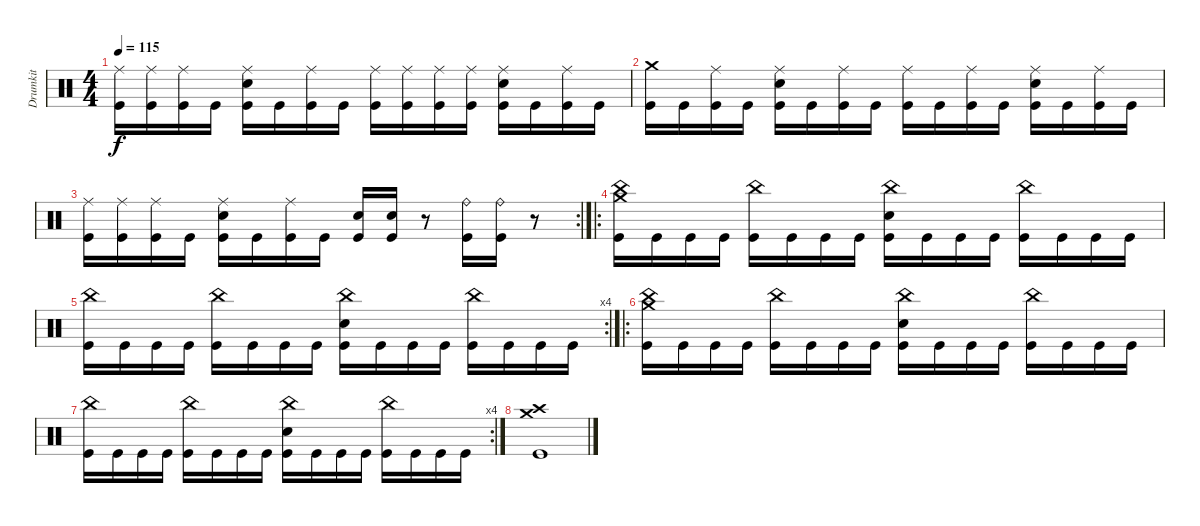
\track ("Drumkit" "Drumkit") {instrument percussion}
\staff {score}
\articulation defaults
\ts (4 4)
\tempo 115
\clef neutral
\ks c
("Kick (hit)" "Ride (middle)").16{dy f} ("Kick (hit)" "Ride (middle)").16 ("Kick (hit)" "Ride (middle)").16 "Kick (hit)".16 ("Kick (hit)" "Snare (hit) 2" "Ride (middle)").16 "Kick (hit)".16 ("Kick (hit)" "Ride (middle)").16 "Kick (hit)".16 ("Kick (hit)" "Ride (middle)").16 ("Kick (hit)" "Ride (middle)").16 ("Kick (hit)" "Ride (middle)").16 ("Kick (hit)" "Ride (middle)").16 ("Kick (hit)" "Snare (hit) 2" "Ride (middle)").16 "Kick (hit)".16 ("Kick (hit)" "Ride (middle)").16 "Kick (hit)".16 |
("Kick (hit)" "Crash medium (hit)").16 "Kick (hit)".16 ("Kick (hit)" "Ride (middle)").16 "Kick (hit)".16 ("Kick (hit)" "Snare (hit) 2" "Ride (middle)").16 "Kick (hit)".16 ("Kick (hit)" "Ride (middle)").16 "Kick (hit)".16 ("Kick (hit)" "Ride (middle)").16 "Kick (hit)".16 ("Kick (hit)" "Ride (middle)").16 "Kick (hit)".16 ("Kick (hit)" "Snare (hit) 2" "Ride (middle)").16 "Kick (hit)".16 ("Kick (hit)" "Ride (middle)").16 "Kick (hit)".16 |
\rc 2
("Kick (hit)" "Ride (middle)").16 ("Kick (hit)" "Ride (middle)").16 ("Kick (hit)" "Ride (middle)").16 "Kick (hit)".16 ("Kick (hit)" "Snare (hit) 2" "Ride (middle)").16 "Kick (hit)".16 ("Kick (hit)" "Ride (middle)").16 "Kick (hit)".16 ("Kick (hit)" "Snare (hit) 2").16 ("Kick (hit)" "Snare (hit) 2").16 r.8 ("Kick (hit)" "Ride (bell)").16 ("Kick (hit)" "Ride (bell)").16 r.8 |
\ro
("Kick (hit)" "Crash medium (hit)" "China (hit)").16 "Kick (hit)".16 "Kick (hit)".16 "Kick (hit)".16 ("Kick (hit)" "China (hit)").16 "Kick (hit)".16 "Kick (hit)".16 "Kick (hit)".16 ("Kick (hit)" "Snare (hit) 2" "China (hit)").16 "Kick (hit)".16 "Kick (hit)".16 "Kick (hit)".16 ("Kick (hit)" "China (hit)").16 "Kick (hit)".16 "Kick (hit)".16 "Kick (hit)".16 |
\rc 4
("Kick (hit)" "China (hit)").16 "Kick (hit)".16 "Kick (hit)".16 "Kick (hit)".16 ("Kick (hit)" "China (hit)").16 "Kick (hit)".16 "Kick (hit)".16 "Kick (hit)".16 ("Kick (hit)" "Snare (hit) 2" "China (hit)").16 "Kick (hit)".16 "Kick (hit)".16 "Kick (hit)".16 ("Kick (hit)" "China (hit)").16 "Kick (hit)".16 "Kick (hit)".16 "Kick (hit)".16 |
\ro
("Kick (hit)" "Crash medium (hit)" "China (hit)").16 "Kick (hit)".16 "Kick (hit)".16 "Kick (hit)".16 ("Kick (hit)" "China (hit)").16 "Kick (hit)".16 "Kick (hit)".16 "Kick (hit)".16 ("Kick (hit)" "Snare (hit) 2" "China (hit)").16 "Kick (hit)".16 "Kick (hit)".16 "Kick (hit)".16 ("Kick (hit)" "China (hit)").16 "Kick (hit)".16 "Kick (hit)".16 "Kick (hit)".16 |
\rc 4
("Kick (hit)" "China (hit)").16 "Kick (hit)".16 "Kick (hit)".16 "Kick (hit)".16 ("Kick (hit)" "China (hit)").16 "Kick (hit)".16 "Kick (hit)".16 "Kick (hit)".16 ("Kick (hit)" "Snare (hit) 2" "China (hit)").16 "Kick (hit)".16 "Kick (hit)".16 "Kick (hit)".16 ("Kick (hit)" "China (hit)").16 "Kick (hit)".16 "Kick (hit)".16 "Kick (hit)".16 |
("Kick (hit)" "Crash medium (hit)" "Crash high (hit)").1
